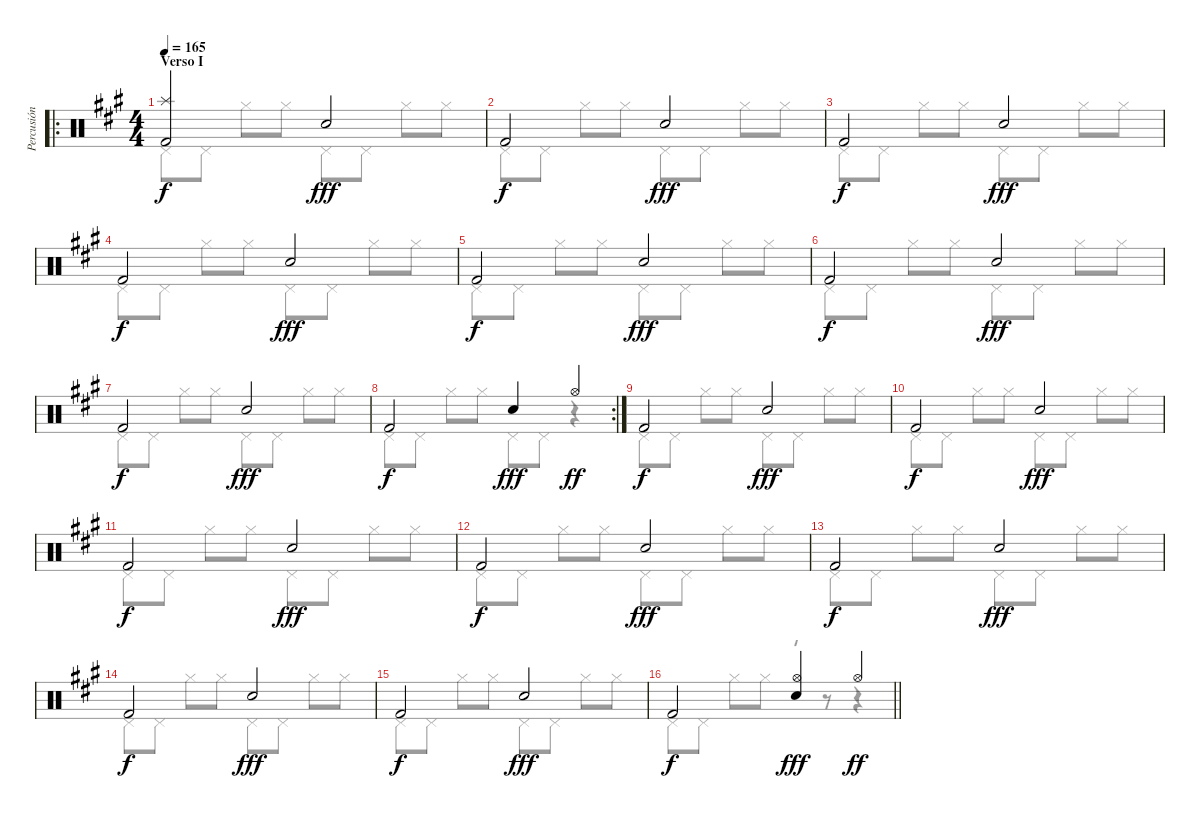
\track ("Percusión" "Percusión") {instrument percussion}
\staff {score}
\articulation defaults
\voice
\ro
\ts (4 4)
\section ("" "Verso I")
\tempo 165
\clef neutral
\ks a
("Splash (hit)" "Kick (hit) 2").2{dy f} "Snare (hit) 2".2{dy fff} |
"Kick (hit) 2".2{dy f} "Snare (hit) 2".2{dy fff} |
"Kick (hit) 2".2{dy f} "Snare (hit) 2".2{dy fff} |
"Kick (hit) 2".2{dy f} "Snare (hit) 2".2{dy fff} |
"Kick (hit) 2".2{dy f} "Snare (hit) 2".2{dy fff} |
"Kick (hit) 2".2{dy f} "Snare (hit) 2".2{dy fff} |
"Kick (hit) 2".2{dy f} "Snare (hit) 2".2{dy fff} |
\rc 2 "Kick (hit) 2".2{dy f} "Snare (hit) 2".4{dy fff} "Hi-Hat (open)".4{dy ff}
|
"Kick (hit) 2".2{dy f} "Snare (hit) 2".2{dy fff} |
"Kick (hit) 2".2{dy f} "Snare (hit) 2".2{dy fff} |
"Kick (hit) 2".2{dy f} "Snare (hit) 2".2{dy fff} |
"Kick (hit) 2".2{dy f} "Snare (hit) 2".2{dy fff} |
"Kick (hit) 2".2{dy f} "Snare (hit) 2".2{dy fff} |
"Kick (hit) 2".2{dy f} "Snare (hit) 2".2{dy fff} |
"Kick (hit) 2".2{dy f} "Snare (hit) 2".2{dy fff} |
\barLineRight lightlight "Kick (hit) 2".2{dy f}
("Hi-Hat (open)" "Snare (hit) 2").4{dy fff} "Hi-Hat (open)".4{dy ff}
\voice
\clef neutral
\ottava regular
\simile none
\ks a "Pedal Hi-Hat (hit)".8{dy f} "Pedal Hi-Hat (hit)".8 "Hi-Hat (closed)".8 "Hi-Hat (closed)".8 "Pedal Hi-Hat (hit)".8 "Pedal Hi-Hat (hit)".8 "Hi-Hat (closed)".8 "Hi-Hat (closed)".8
|
"Pedal Hi-Hat (hit)".8 "Pedal Hi-Hat (hit)".8 "Hi-Hat (closed)".8 "Hi-Hat (closed)".8 "Pedal Hi-Hat (hit)".8 "Pedal Hi-Hat (hit)".8 "Hi-Hat (closed)".8 "Hi-Hat (closed)".8 |
"Pedal Hi-Hat (hit)".8 "Pedal Hi-Hat (hit)".8 "Hi-Hat (closed)".8 "Hi-Hat (closed)".8 "Pedal Hi-Hat (hit)".8 "Pedal Hi-Hat (hit)".8 "Hi-Hat (closed)".8 "Hi-Hat (closed)".8 |
"Pedal Hi-Hat (hit)".8 "Pedal Hi-Hat (hit)".8 "Hi-Hat (closed)".8 "Hi-Hat (closed)".8 "Pedal Hi-Hat (hit)".8 "Pedal Hi-Hat (hit)".8 "Hi-Hat (closed)".8 "Hi-Hat (closed)".8 |
"Pedal Hi-Hat (hit)".8 "Pedal Hi-Hat (hit)".8 "Hi-Hat (closed)".8 "Hi-Hat (closed)".8 "Pedal Hi-Hat (hit)".8 "Pedal Hi-Hat (hit)".8 "Hi-Hat (closed)".8 "Hi-Hat (closed)".8 |
"Pedal Hi-Hat (hit)".8 "Pedal Hi-Hat (hit)".8 "Hi-Hat (closed)".8 "Hi-Hat (closed)".8 "Pedal Hi-Hat (hit)".8 "Pedal Hi-Hat (hit)".8 "Hi-Hat (closed)".8 "Hi-Hat (closed)".8 |
"Pedal Hi-Hat (hit)".8 "Pedal Hi-Hat (hit)".8 "Hi-Hat (closed)".8 "Hi-Hat (closed)".8 "Pedal Hi-Hat (hit)".8 "Pedal Hi-Hat (hit)".8 "Hi-Hat (closed)".8 "Hi-Hat (closed)".8 |
"Pedal Hi-Hat (hit)".8 "Pedal Hi-Hat (hit)".8 "Hi-Hat (closed)".8 "Hi-Hat (closed)".8 "Pedal Hi-Hat (hit)".8 "Pedal Hi-Hat (hit)".8 r.4 |
"Pedal Hi-Hat (hit)".8 "Pedal Hi-Hat (hit)".8 "Hi-Hat (closed)".8 "Hi-Hat (closed)".8 "Pedal Hi-Hat (hit)".8 "Pedal Hi-Hat (hit)".8 "Hi-Hat (closed)".8 "Hi-Hat (closed)".8 |
"Pedal Hi-Hat (hit)".8 "Pedal Hi-Hat (hit)".8 "Hi-Hat (closed)".8 "Hi-Hat (closed)".8 "Pedal Hi-Hat (hit)".8 "Pedal Hi-Hat (hit)".8 "Hi-Hat (closed)".8 "Hi-Hat (closed)".8 |
"Pedal Hi-Hat (hit)".8 "Pedal Hi-Hat (hit)".8 "Hi-Hat (closed)".8 "Hi-Hat (closed)".8 "Pedal Hi-Hat (hit)".8 "Pedal Hi-Hat (hit)".8 "Hi-Hat (closed)".8 "Hi-Hat (closed)".8 |
"Pedal Hi-Hat (hit)".8 "Pedal Hi-Hat (hit)".8 "Hi-Hat (closed)".8 "Hi-Hat (closed)".8 "Pedal Hi-Hat (hit)".8 "Pedal Hi-Hat (hit)".8 "Hi-Hat (closed)".8 "Hi-Hat (closed)".8 |
"Pedal Hi-Hat (hit)".8 "Pedal Hi-Hat (hit)".8 "Hi-Hat (closed)".8 "Hi-Hat (closed)".8 "Pedal Hi-Hat (hit)".8 "Pedal Hi-Hat (hit)".8 "Hi-Hat (closed)".8 "Hi-Hat (closed)".8 |
"Pedal Hi-Hat (hit)".8 "Pedal Hi-Hat (hit)".8 "Hi-Hat (closed)".8 "Hi-Hat (closed)".8 "Pedal Hi-Hat (hit)".8 "Pedal Hi-Hat (hit)".8 "Hi-Hat (closed)".8 "Hi-Hat (closed)".8 |
"Pedal Hi-Hat (hit)".8 "Pedal Hi-Hat (hit)".8 "Hi-Hat (closed)".8 "Hi-Hat (closed)".8 "Pedal Hi-Hat (hit)".8 "Pedal Hi-Hat (hit)".8 "Hi-Hat (closed)".8 "Hi-Hat (closed)".8 |
\barLineRight lightlight "Pedal Hi-Hat (hit)".8 "Pedal Hi-Hat (hit)".8 "Hi-Hat (closed)".8 "Hi-Hat (closed)".8
r.8 r.8 r.4
